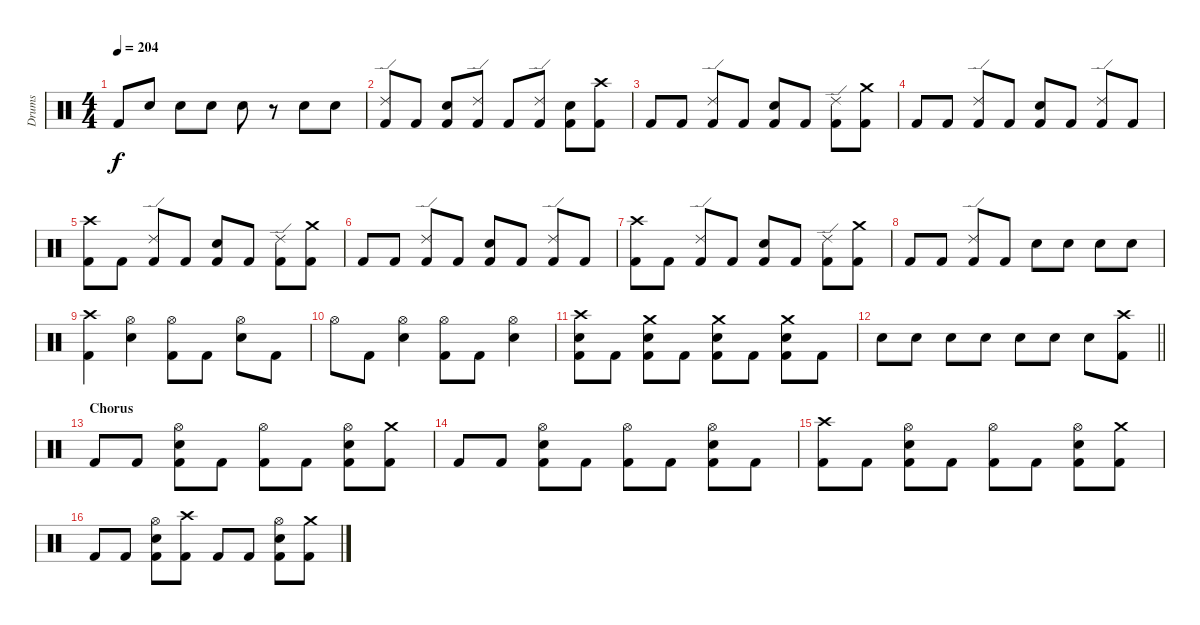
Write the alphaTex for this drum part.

\track ("Drums" "Drums") {instrument percussion}
\staff {score}
\articulation defaults
\ts (4 4)
\tempo 204
\clef neutral
\ks c "Kick (hit) 2".8{dy f} "Snare (hit) 2".8 "Snare (hit) 2".8 "Snare (hit) 2".8 "Snare (hit) 2".8
r.8 "Snare (hit) 2".8 "Snare (hit) 2".8 |
("Ride (edge) 2" "Kick (hit) 2").8 "Kick (hit) 2".8 ("Snare (hit) 2" "Kick (hit) 2").8 ("Ride (edge) 2" "Kick (hit) 2").8 "Kick (hit) 2".8 ("Ride (edge) 2" "Kick (hit) 2").8 ("Snare (hit) 2" "Kick (hit) 2").8 ("Crash high (hit)" "Kick (hit) 2").8 |
"Kick (hit) 2".8 "Kick (hit) 2".8 ("Ride (edge) 2" "Kick (hit) 2").8 "Kick (hit) 2".8 ("Snare (hit) 2" "Kick (hit) 2").8 "Kick (hit) 2".8 ("Ride (edge) 2" "Kick (hit) 2").8 ("Crash medium (hit)" "Kick (hit) 2").8 |
"Kick (hit) 2".8 "Kick (hit) 2".8 ("Ride (edge) 2" "Kick (hit) 2").8 "Kick (hit) 2".8 ("Snare (hit) 2" "Kick (hit) 2").8 "Kick (hit) 2".8 ("Ride (edge) 2" "Kick (hit) 2").8 "Kick (hit) 2".8 |
("Crash high (hit)" "Kick (hit) 2").8 "Kick (hit) 2".8 ("Ride (edge) 2" "Kick (hit) 2").8 "Kick (hit) 2".8 ("Snare (hit) 2" "Kick (hit) 2").8 "Kick (hit) 2".8 ("Ride (edge) 2" "Kick (hit) 2").8 ("Crash medium (hit)" "Kick (hit) 2").8 |
"Kick (hit) 2".8 "Kick (hit) 2".8 ("Ride (edge) 2" "Kick (hit) 2").8 "Kick (hit) 2".8 ("Snare (hit) 2" "Kick (hit) 2").8 "Kick (hit) 2".8 ("Ride (edge) 2" "Kick (hit) 2").8 "Kick (hit) 2".8 |
("Crash high (hit)" "Kick (hit) 2").8 "Kick (hit) 2".8 ("Ride (edge) 2" "Kick (hit) 2").8 "Kick (hit) 2".8 ("Snare (hit) 2" "Kick (hit) 2").8 "Kick (hit) 2".8 ("Ride (edge) 2" "Kick (hit) 2").8 ("Crash medium (hit)" "Kick (hit) 2").8 |
"Kick (hit) 2".8 "Kick (hit) 2".8 ("Ride (edge) 2" "Kick (hit) 2").8 "Kick (hit) 2".8 "Snare (hit) 2".8 "Snare (hit) 2".8 "Snare (hit) 2".8 "Snare (hit) 2".8 |
("Crash high (hit)" "Kick (hit) 2").4 ("Hi-Hat (open)" "Snare (hit) 2").4 ("Hi-Hat (open)" "Kick (hit) 2").8 "Kick (hit) 2".8 ("Hi-Hat (open)" "Snare (hit) 2").8 "Kick (hit) 2".8 |
"Hi-Hat (open)".8 "Kick (hit) 2".8 ("Hi-Hat (open)" "Snare (hit) 2").4 ("Hi-Hat (open)" "Kick (hit) 2").8 "Kick (hit) 2".8 ("Hi-Hat (open)" "Snare (hit) 2").4 |
("Crash high (hit)" "Snare (hit) 2" "Kick (hit) 2").8 "Kick (hit) 2".8 ("Crash medium (hit)" "Snare (hit) 2" "Kick (hit) 2").8 "Kick (hit) 2".8 ("Crash medium (hit)" "Snare (hit) 2" "Kick (hit) 2").8 "Kick (hit) 2".8 ("Crash medium (hit)" "Snare (hit) 2" "Kick (hit) 2").8 "Kick (hit) 2".8 |
\barLineRight lightlight "Snare (hit) 2".8 "Snare (hit) 2".8 "Snare (hit) 2".8 "Snare (hit) 2".8 "Snare (hit) 2".8 "Snare (hit) 2".8 "Snare (hit) 2".8
("Crash high (hit)" "Kick (hit) 2").8 |
\section ("" "Chorus")
"Kick (hit) 2".8 "Kick (hit) 2".8 ("Hi-Hat (open)" "Snare (hit) 2" "Kick (hit) 2").8 "Kick (hit) 2".8 ("Hi-Hat (open)" "Kick (hit) 2").8 "Kick (hit) 2".8 ("Hi-Hat (open)" "Snare (hit) 2" "Kick (hit) 2").8 ("Crash medium (hit)" "Kick (hit) 2").8 |
"Kick (hit) 2".8 "Kick (hit) 2".8 ("Hi-Hat (open)" "Snare (hit) 2" "Kick (hit) 2").8 "Kick (hit) 2".8 ("Hi-Hat (open)" "Kick (hit) 2").8 "Kick (hit) 2".8 ("Hi-Hat (open)" "Snare (hit) 2" "Kick (hit) 2").8 "Kick (hit) 2".8 |
("Crash high (hit)" "Kick (hit) 2").8 "Kick (hit) 2".8 ("Hi-Hat (open)" "Snare (hit) 2" "Kick (hit) 2").8 "Kick (hit) 2".8 ("Hi-Hat (open)" "Kick (hit) 2").8 "Kick (hit) 2".8 ("Hi-Hat (open)" "Snare (hit) 2" "Kick (hit) 2").8 ("Crash medium (hit)" "Kick (hit) 2").8 |
"Kick (hit) 2".8 "Kick (hit) 2".8 ("Hi-Hat (open)" "Snare (hit) 2" "Kick (hit) 2").8 ("Crash high (hit)" "Kick (hit) 2").8 "Kick (hit) 2".8 "Kick (hit) 2".8 ("Hi-Hat (open)" "Snare (hit) 2" "Kick (hit) 2").8 ("Crash medium (hit)" "Kick (hit) 2").8
